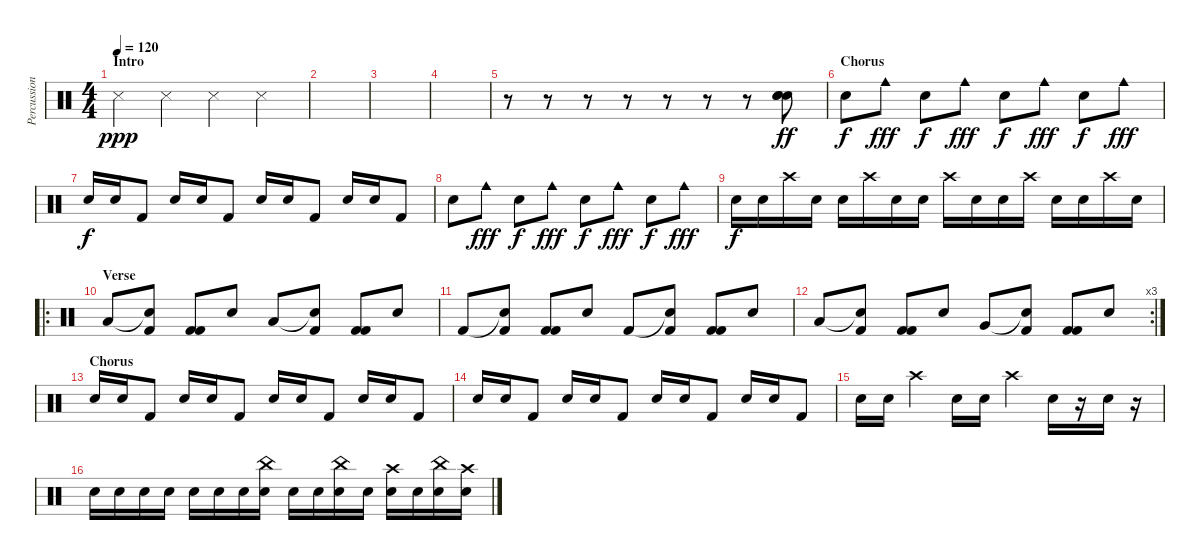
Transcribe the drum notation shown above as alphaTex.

\track ("Percussions" "Percussion") {instrument percussion}
\staff {score}
\articulation defaults
\ts (4 4)
\section ("" "Intro")
\tempo 120
\clef neutral
\ks c "Snare (side stick) 3".4{dy ppp} "Snare (side stick) 3".4 "Snare (side stick) 3".4 "Snare (side stick) 3".4
|
|
|
|
r.8 r.8 r.8 r.8 r.8 r.8 r.8 ("Hand Clap (hit)" "Hand Clap (hit)" "Hand Clap (hit)").8{bd 240 dy ff} |
\section ("" "Chorus")
"Electric Snare (hit)".8{dy f} "Cowbell medium (hit)".8{dy fff} "Electric Snare (hit)".8{dy f} "Cowbell medium (hit)".8{dy fff} "Electric Snare (hit)".8{dy f} "Cowbell medium (hit)".8{dy fff} "Electric Snare (hit)".8{dy f} "Cowbell medium (hit)".8{dy fff} |
"Electric Snare (hit)".16{dy f} "Electric Snare (hit)".16 "Kick (hit) 2".8 "Electric Snare (hit)".16 "Electric Snare (hit)".16 "Kick (hit) 2".8 "Electric Snare (hit)".16 "Electric Snare (hit)".16 "Kick (hit) 2".8 "Electric Snare (hit)".16 "Electric Snare (hit)".16 "Kick (hit) 2".8 |
"Electric Snare (hit)".8 "Cowbell medium (hit)".8{dy fff} "Electric Snare (hit)".8{dy f} "Cowbell medium (hit)".8{dy fff} "Electric Snare (hit)".8{dy f} "Cowbell medium (hit)".8{dy fff} "Electric Snare (hit)".8{dy f} "Cowbell medium (hit)".8{dy fff} |
"Electric Snare (hit)".16{dy f} "Snare (hit) 2".16 "Crash high (hit)".16 "Electric Snare (hit)".16 "Snare (hit) 2".16 "Crash high (hit)".16 "Electric Snare (hit)".16 "Snare (hit) 2".16 "Crash high (hit)".16 "Electric Snare (hit)".16 "Snare (hit) 2".16 "Crash high (hit)".16 "Electric Snare (hit)".16 "Snare (hit) 2".16 "Crash high (hit)".16 "Electric Snare (hit)".16 |
\ro
\section ("" "Verse")
"Low Tom (hit)".8 ("Snare (hit)"{t} "Kick (hit) 2").8 ("Kick (hit) 2" "Kick (hit) 2").8 "Electric Snare (hit)".8 "Low Tom (hit)".8 ("Snare (hit)"{t} "Kick (hit) 2").8 ("Kick (hit) 2" "Kick (hit) 2").8 "Snare (hit) 2".8 |
"Kick (hit) 2".8 ("Snare (hit)"{t} "Kick (hit) 2").8 ("Kick (hit) 2" "Kick (hit) 2").8 "Electric Snare (hit)".8 "Kick (hit) 2".8 ("Snare (hit)"{t} "Kick (hit) 2").8 ("Kick (hit) 2" "Kick (hit) 2").8 "Snare (hit) 2".8 |
\rc 3 "Low Tom (hit)".8
("Snare (hit)"{t} "Kick (hit) 2").8 ("Kick (hit) 2" "Kick (hit) 2").8 "Electric Snare (hit)".8 "Very Low Tom (hit)".8 ("Snare (hit)"{t} "Kick (hit) 2").8 ("Kick (hit) 2" "Kick (hit) 2").8 "Snare (hit) 2".8 |
\section ("" "Chorus")
"Electric Snare (hit)".16 "Electric Snare (hit)".16 "Kick (hit) 2".8 "Electric Snare (hit)".16 "Electric Snare (hit)".16 "Kick (hit) 2".8 "Electric Snare (hit)".16 "Electric Snare (hit)".16 "Kick (hit) 2".8 "Electric Snare (hit)".16 "Electric Snare (hit)".16 "Kick (hit) 2".8 |
"Electric Snare (hit)".16 "Electric Snare (hit)".16 "Kick (hit) 2".8 "Electric Snare (hit)".16 "Electric Snare (hit)".16 "Kick (hit) 2".8 "Electric Snare (hit)".16 "Electric Snare (hit)".16 "Kick (hit) 2".8 "Electric Snare (hit)".16 "Electric Snare (hit)".16 "Kick (hit) 2".8 |
"Electric Snare (hit)".16 "Electric Snare (hit)".16 "Crash high (hit)".4 "Electric Snare (hit)".16 "Electric Snare (hit)".16 "Crash high (hit)".4 "Electric Snare (hit)".16 r.16 "Electric Snare (hit)".16 r.16 |
"Electric Snare (hit)".16 "Electric Snare (hit)".16 "Snare (hit) 2".16 "Snare (hit) 2".16 "Electric Snare (hit)".16 "Electric Snare (hit)".16 "Snare (hit) 2".16 ("China (hit)" "Snare (hit) 2").16 "Electric Snare (hit)".16 "Electric Snare (hit)".16 ("China (hit)" "Snare (hit) 2").16 "Snare (hit) 2".16 ("Crash high (hit)" "Snare (hit) 2").16 "Snare (hit) 2".16 ("China (hit)" "Electric Snare (hit)").16 ("Crash high (hit)" "Electric Snare (hit)").16
